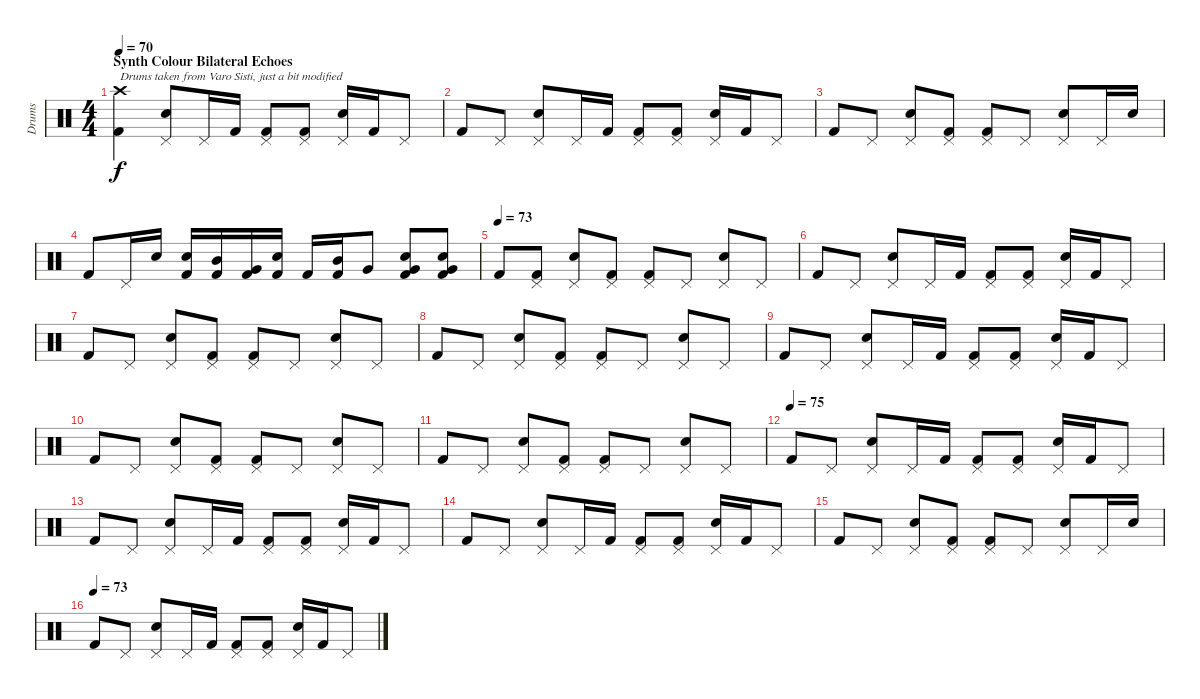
\track ("Drums" "Drums") {instrument percussion}
\staff {score}
\articulation defaults
\ts (4 4)
\section ("" "Synth Colour Bilateral Echoes")
\tempo 70
\tempo 71
\tempo 70
\clef neutral
\ks c
("Crash high (hit)" "Kick (hit) 2").4{txt "Drums taken from Varo Sisti, just a bit modified" dy f} ("Pedal Hi-Hat (hit)" "Electric Snare (hit)").8 "Pedal Hi-Hat (hit)".16 "Kick (hit) 2".16 ("Pedal Hi-Hat (hit)" "Kick (hit) 2").8 ("Pedal Hi-Hat (hit)" "Kick (hit) 2").8 ("Pedal Hi-Hat (hit)" "Electric Snare (hit)").16 "Kick (hit) 2".16 "Pedal Hi-Hat (hit)".8 |
"Kick (hit) 2".8 "Pedal Hi-Hat (hit)".8 ("Pedal Hi-Hat (hit)" "Electric Snare (hit)").8 "Pedal Hi-Hat (hit)".16 "Kick (hit) 2".16 ("Pedal Hi-Hat (hit)" "Kick (hit) 2").8 ("Pedal Hi-Hat (hit)" "Kick (hit) 2").8 ("Pedal Hi-Hat (hit)" "Electric Snare (hit)").16 "Kick (hit) 2".16 "Pedal Hi-Hat (hit)".8 |
"Kick (hit) 2".8 "Pedal Hi-Hat (hit)".8 ("Pedal Hi-Hat (hit)" "Electric Snare (hit)").8 ("Pedal Hi-Hat (hit)" "Kick (hit) 2").8 ("Pedal Hi-Hat (hit)" "Kick (hit) 2").8 "Pedal Hi-Hat (hit)".8 ("Pedal Hi-Hat (hit)" "Electric Snare (hit)").8 "Pedal Hi-Hat (hit)".16 "Electric Snare (hit)".16 |
"Kick (hit) 2".8 "Pedal Hi-Hat (hit)".16 "Electric Snare (hit)".16 ("Electric Snare (hit)" "Kick (hit) 2").16 ("Mid Tom (hit)" "Kick (hit) 2").16 ("Very Low Tom (hit)" "Kick (hit) 2").16 ("Electric Snare (hit)" "Kick (hit) 2").16 "Kick (hit) 2".16 ("Mid Tom (hit)" "Kick (hit) 2").16 "Very Low Tom (hit)".8 ("Electric Snare (hit)" "Very Low Tom (hit)" "Kick (hit) 2").8 ("Electric Snare (hit)" "Very Low Tom (hit)" "Kick (hit) 2").8 |
\tempo (73)
"Kick (hit) 2".8 ("Pedal Hi-Hat (hit)" "Kick (hit) 2").8 ("Pedal Hi-Hat (hit)" "Electric Snare (hit)").8 ("Pedal Hi-Hat (hit)" "Kick (hit) 2").8 ("Pedal Hi-Hat (hit)" "Kick (hit) 2").8 "Pedal Hi-Hat (hit)".8 ("Pedal Hi-Hat (hit)" "Electric Snare (hit)").8 "Pedal Hi-Hat (hit)".8 |
"Kick (hit) 2".8 "Pedal Hi-Hat (hit)".8 ("Pedal Hi-Hat (hit)" "Electric Snare (hit)").8 "Pedal Hi-Hat (hit)".16 "Kick (hit) 2".16 ("Pedal Hi-Hat (hit)" "Kick (hit) 2").8 ("Pedal Hi-Hat (hit)" "Kick (hit) 2").8 ("Pedal Hi-Hat (hit)" "Electric Snare (hit)").16 "Kick (hit) 2".16 "Pedal Hi-Hat (hit)".8 |
"Kick (hit) 2".8 "Pedal Hi-Hat (hit)".8 ("Pedal Hi-Hat (hit)" "Electric Snare (hit)").8 ("Pedal Hi-Hat (hit)" "Kick (hit) 2").8 ("Pedal Hi-Hat (hit)" "Kick (hit) 2").8 "Pedal Hi-Hat (hit)".8 ("Pedal Hi-Hat (hit)" "Electric Snare (hit)").8 "Pedal Hi-Hat (hit)".8 |
"Kick (hit) 2".8 "Pedal Hi-Hat (hit)".8 ("Pedal Hi-Hat (hit)" "Electric Snare (hit)").8 ("Pedal Hi-Hat (hit)" "Kick (hit) 2").8 ("Pedal Hi-Hat (hit)" "Kick (hit) 2").8 "Pedal Hi-Hat (hit)".8 ("Pedal Hi-Hat (hit)" "Electric Snare (hit)").8 "Pedal Hi-Hat (hit)".8 |
"Kick (hit) 2".8 "Pedal Hi-Hat (hit)".8 ("Pedal Hi-Hat (hit)" "Electric Snare (hit)").8 "Pedal Hi-Hat (hit)".16 "Kick (hit) 2".16 ("Pedal Hi-Hat (hit)" "Kick (hit) 2").8 ("Pedal Hi-Hat (hit)" "Kick (hit) 2").8 ("Pedal Hi-Hat (hit)" "Electric Snare (hit)").16 "Kick (hit) 2".16 "Pedal Hi-Hat (hit)".8 |
"Kick (hit) 2".8 "Pedal Hi-Hat (hit)".8 ("Pedal Hi-Hat (hit)" "Electric Snare (hit)").8 ("Pedal Hi-Hat (hit)" "Kick (hit) 2").8 ("Pedal Hi-Hat (hit)" "Kick (hit) 2").8 "Pedal Hi-Hat (hit)".8 ("Pedal Hi-Hat (hit)" "Electric Snare (hit)").8 "Pedal Hi-Hat (hit)".8 |
"Kick (hit) 2".8 "Pedal Hi-Hat (hit)".8 ("Pedal Hi-Hat (hit)" "Electric Snare (hit)").8 ("Pedal Hi-Hat (hit)" "Kick (hit) 2").8 ("Pedal Hi-Hat (hit)" "Kick (hit) 2").8 "Pedal Hi-Hat (hit)".8 ("Pedal Hi-Hat (hit)" "Electric Snare (hit)").8 "Pedal Hi-Hat (hit)".8 |
\tempo (75)
"Kick (hit) 2".8 "Pedal Hi-Hat (hit)".8 ("Pedal Hi-Hat (hit)" "Electric Snare (hit)").8 "Pedal Hi-Hat (hit)".16 "Kick (hit) 2".16 ("Pedal Hi-Hat (hit)" "Kick (hit) 2").8 ("Pedal Hi-Hat (hit)" "Kick (hit) 2").8 ("Pedal Hi-Hat (hit)" "Electric Snare (hit)").16 "Kick (hit) 2".16 "Pedal Hi-Hat (hit)".8 |
"Kick (hit) 2".8 "Pedal Hi-Hat (hit)".8 ("Pedal Hi-Hat (hit)" "Electric Snare (hit)").8 "Pedal Hi-Hat (hit)".16 "Kick (hit) 2".16 ("Pedal Hi-Hat (hit)" "Kick (hit) 2").8 ("Pedal Hi-Hat (hit)" "Kick (hit) 2").8 ("Pedal Hi-Hat (hit)" "Electric Snare (hit)").16 "Kick (hit) 2".16 "Pedal Hi-Hat (hit)".8 |
"Kick (hit) 2".8 "Pedal Hi-Hat (hit)".8 ("Pedal Hi-Hat (hit)" "Electric Snare (hit)").8 "Pedal Hi-Hat (hit)".16 "Kick (hit) 2".16 ("Pedal Hi-Hat (hit)" "Kick (hit) 2").8 ("Pedal Hi-Hat (hit)" "Kick (hit) 2").8 ("Pedal Hi-Hat (hit)" "Electric Snare (hit)").16 "Kick (hit) 2".16 "Pedal Hi-Hat (hit)".8 |
"Kick (hit) 2".8 "Pedal Hi-Hat (hit)".8 ("Pedal Hi-Hat (hit)" "Electric Snare (hit)").8 ("Pedal Hi-Hat (hit)" "Kick (hit) 2").8 ("Pedal Hi-Hat (hit)" "Kick (hit) 2").8 "Pedal Hi-Hat (hit)".8 ("Pedal Hi-Hat (hit)" "Electric Snare (hit)").8 "Pedal Hi-Hat (hit)".16 "Electric Snare (hit)".16 |
\tempo (73)
"Kick (hit) 2".8 "Pedal Hi-Hat (hit)".8 ("Pedal Hi-Hat (hit)" "Electric Snare (hit)").8 "Pedal Hi-Hat (hit)".16 "Kick (hit) 2".16 ("Pedal Hi-Hat (hit)" "Kick (hit) 2").8 ("Pedal Hi-Hat (hit)" "Kick (hit) 2").8 ("Pedal Hi-Hat (hit)" "Electric Snare (hit)").16 "Kick (hit) 2".16 "Pedal Hi-Hat (hit)".8
